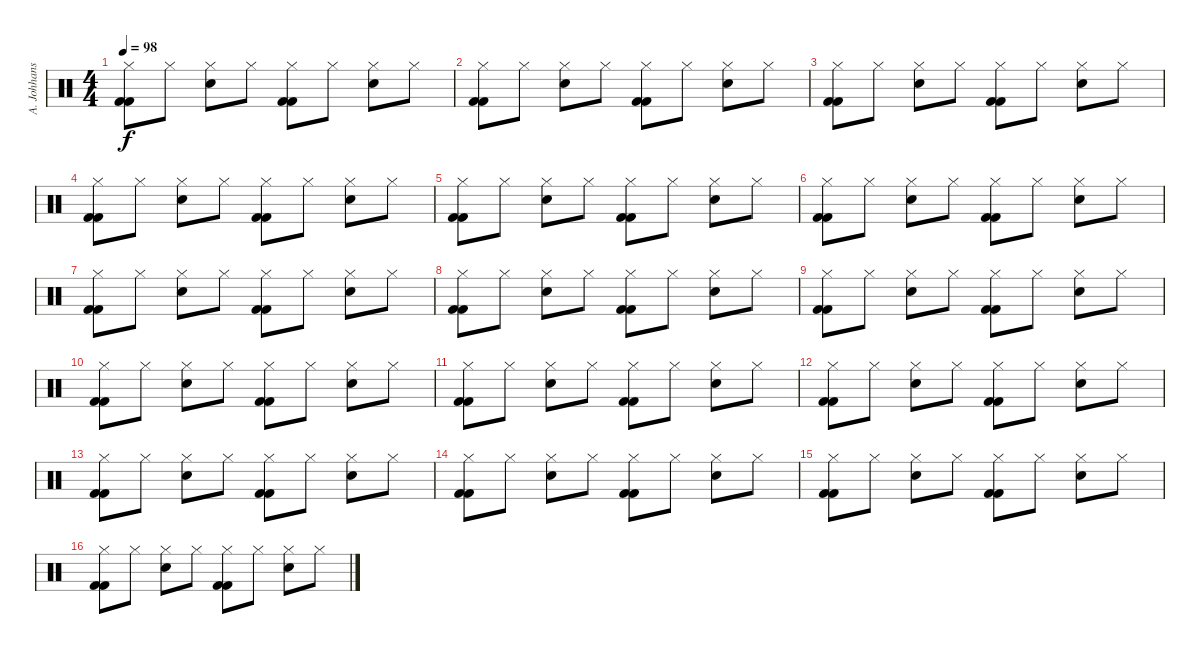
\track ("A. Johhanson" "A. Johhans") {instrument percussion}
\staff {score}
\articulation defaults
\ts (4 4)
\tempo 98
\clef neutral
\ks c
("Hi-Hat (closed)" "Kick (hit) 2" "Kick (hit) 2").8{dy f} "Hi-Hat (closed)".8 ("Hi-Hat (closed)" "Snare (hit) 2").8 "Hi-Hat (closed)".8 ("Hi-Hat (closed)" "Kick (hit) 2" "Kick (hit) 2").8 "Hi-Hat (closed)".8 ("Hi-Hat (closed)" "Snare (hit) 2").8 "Hi-Hat (closed)".8 |
("Hi-Hat (closed)" "Kick (hit) 2" "Kick (hit) 2").8 "Hi-Hat (closed)".8 ("Hi-Hat (closed)" "Snare (hit) 2").8 "Hi-Hat (closed)".8 ("Hi-Hat (closed)" "Kick (hit) 2" "Kick (hit) 2").8 "Hi-Hat (closed)".8 ("Hi-Hat (closed)" "Snare (hit) 2").8 "Hi-Hat (closed)".8 |
("Hi-Hat (closed)" "Kick (hit) 2" "Kick (hit) 2").8 "Hi-Hat (closed)".8 ("Hi-Hat (closed)" "Snare (hit) 2").8 "Hi-Hat (closed)".8 ("Hi-Hat (closed)" "Kick (hit) 2" "Kick (hit) 2").8 "Hi-Hat (closed)".8 ("Hi-Hat (closed)" "Snare (hit) 2").8 "Hi-Hat (closed)".8 |
("Hi-Hat (closed)" "Kick (hit) 2" "Kick (hit) 2").8 "Hi-Hat (closed)".8 ("Hi-Hat (closed)" "Snare (hit) 2").8 "Hi-Hat (closed)".8 ("Hi-Hat (closed)" "Kick (hit) 2" "Kick (hit) 2").8 "Hi-Hat (closed)".8 ("Hi-Hat (closed)" "Snare (hit) 2").8 "Hi-Hat (closed)".8 |
("Hi-Hat (closed)" "Kick (hit) 2" "Kick (hit) 2").8 "Hi-Hat (closed)".8 ("Hi-Hat (closed)" "Snare (hit) 2").8 "Hi-Hat (closed)".8 ("Hi-Hat (closed)" "Kick (hit) 2" "Kick (hit) 2").8 "Hi-Hat (closed)".8 ("Hi-Hat (closed)" "Snare (hit) 2").8 "Hi-Hat (closed)".8 |
("Hi-Hat (closed)" "Kick (hit) 2" "Kick (hit) 2").8 "Hi-Hat (closed)".8 ("Hi-Hat (closed)" "Snare (hit) 2").8 "Hi-Hat (closed)".8 ("Hi-Hat (closed)" "Kick (hit) 2" "Kick (hit) 2").8 "Hi-Hat (closed)".8 ("Hi-Hat (closed)" "Snare (hit) 2").8 "Hi-Hat (closed)".8 |
("Hi-Hat (closed)" "Kick (hit) 2" "Kick (hit) 2").8 "Hi-Hat (closed)".8 ("Hi-Hat (closed)" "Snare (hit) 2").8 "Hi-Hat (closed)".8 ("Hi-Hat (closed)" "Kick (hit) 2" "Kick (hit) 2").8 "Hi-Hat (closed)".8 ("Hi-Hat (closed)" "Snare (hit) 2").8 "Hi-Hat (closed)".8 |
("Hi-Hat (closed)" "Kick (hit) 2" "Kick (hit) 2").8 "Hi-Hat (closed)".8 ("Hi-Hat (closed)" "Snare (hit) 2").8 "Hi-Hat (closed)".8 ("Hi-Hat (closed)" "Kick (hit) 2" "Kick (hit) 2").8 "Hi-Hat (closed)".8 ("Hi-Hat (closed)" "Snare (hit) 2").8 "Hi-Hat (closed)".8 |
("Hi-Hat (closed)" "Kick (hit) 2" "Kick (hit) 2").8 "Hi-Hat (closed)".8 ("Hi-Hat (closed)" "Snare (hit) 2").8 "Hi-Hat (closed)".8 ("Hi-Hat (closed)" "Kick (hit) 2" "Kick (hit) 2").8 "Hi-Hat (closed)".8 ("Hi-Hat (closed)" "Snare (hit) 2").8 "Hi-Hat (closed)".8 |
("Hi-Hat (closed)" "Kick (hit) 2" "Kick (hit) 2").8 "Hi-Hat (closed)".8 ("Hi-Hat (closed)" "Snare (hit) 2").8 "Hi-Hat (closed)".8 ("Hi-Hat (closed)" "Kick (hit) 2" "Kick (hit) 2").8 "Hi-Hat (closed)".8 ("Hi-Hat (closed)" "Snare (hit) 2").8 "Hi-Hat (closed)".8 |
("Hi-Hat (closed)" "Kick (hit) 2" "Kick (hit) 2").8 "Hi-Hat (closed)".8 ("Hi-Hat (closed)" "Snare (hit) 2").8 "Hi-Hat (closed)".8 ("Hi-Hat (closed)" "Kick (hit) 2" "Kick (hit) 2").8 "Hi-Hat (closed)".8 ("Hi-Hat (closed)" "Snare (hit) 2").8 "Hi-Hat (closed)".8 |
("Hi-Hat (closed)" "Kick (hit) 2" "Kick (hit) 2").8 "Hi-Hat (closed)".8 ("Hi-Hat (closed)" "Snare (hit) 2").8 "Hi-Hat (closed)".8 ("Hi-Hat (closed)" "Kick (hit) 2" "Kick (hit) 2").8 "Hi-Hat (closed)".8 ("Hi-Hat (closed)" "Snare (hit) 2").8 "Hi-Hat (closed)".8 |
("Hi-Hat (closed)" "Kick (hit) 2" "Kick (hit) 2").8 "Hi-Hat (closed)".8 ("Hi-Hat (closed)" "Snare (hit) 2").8 "Hi-Hat (closed)".8 ("Hi-Hat (closed)" "Kick (hit) 2" "Kick (hit) 2").8 "Hi-Hat (closed)".8 ("Hi-Hat (closed)" "Snare (hit) 2").8 "Hi-Hat (closed)".8 |
("Hi-Hat (closed)" "Kick (hit) 2" "Kick (hit) 2").8 "Hi-Hat (closed)".8 ("Hi-Hat (closed)" "Snare (hit) 2").8 "Hi-Hat (closed)".8 ("Hi-Hat (closed)" "Kick (hit) 2" "Kick (hit) 2").8 "Hi-Hat (closed)".8 ("Hi-Hat (closed)" "Snare (hit) 2").8 "Hi-Hat (closed)".8 |
("Hi-Hat (closed)" "Kick (hit) 2" "Kick (hit) 2").8 "Hi-Hat (closed)".8 ("Hi-Hat (closed)" "Snare (hit) 2").8 "Hi-Hat (closed)".8 ("Hi-Hat (closed)" "Kick (hit) 2" "Kick (hit) 2").8 "Hi-Hat (closed)".8 ("Hi-Hat (closed)" "Snare (hit) 2").8 "Hi-Hat (closed)".8 |
("Hi-Hat (closed)" "Kick (hit) 2" "Kick (hit) 2").8 "Hi-Hat (closed)".8 ("Hi-Hat (closed)" "Snare (hit) 2").8 "Hi-Hat (closed)".8 ("Hi-Hat (closed)" "Kick (hit) 2" "Kick (hit) 2").8 "Hi-Hat (closed)".8 ("Hi-Hat (closed)" "Snare (hit) 2").8 "Hi-Hat (closed)".8
